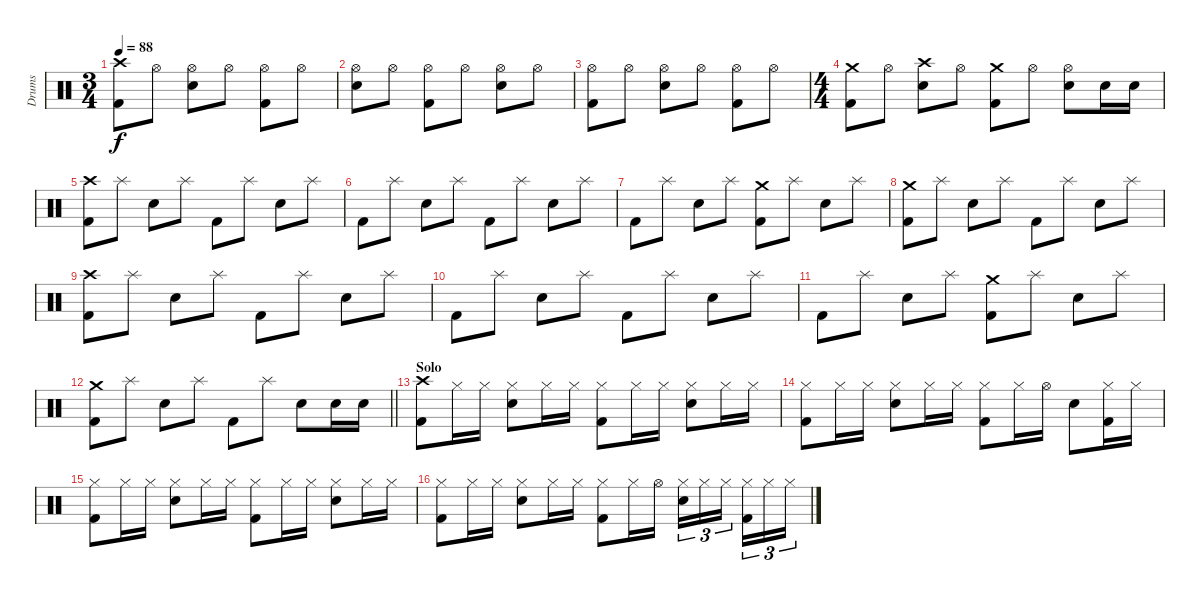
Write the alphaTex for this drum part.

\track ("Drums" "Drums") {instrument percussion}
\staff {score}
\articulation defaults
\ts (3 4)
\tempo 88
\clef neutral
\ks c
("Crash high (hit)" "Kick (hit) 2").8{dy f} "Hi-Hat (open)".8 ("Hi-Hat (open)" "Snare (hit) 2").8 "Hi-Hat (open)".8 ("Hi-Hat (open)" "Kick (hit) 2").8 "Hi-Hat (open)".8 |
("Hi-Hat (open)" "Snare (hit) 2").8 "Hi-Hat (open)".8 ("Hi-Hat (open)" "Kick (hit) 2").8 "Hi-Hat (open)".8 ("Hi-Hat (open)" "Snare (hit) 2").8 "Hi-Hat (open)".8 |
("Hi-Hat (open)" "Kick (hit) 2").8 "Hi-Hat (open)".8 ("Hi-Hat (open)" "Snare (hit) 2").8 "Hi-Hat (open)".8 ("Hi-Hat (open)" "Kick (hit) 2").8 "Hi-Hat (open)".8 |
\ts (4 4)
("Crash medium (hit)" "Kick (hit) 2").8 "Hi-Hat (open)".8 ("Crash high (hit)" "Snare (hit) 2").8 "Hi-Hat (open)".8 ("Crash medium (hit)" "Kick (hit) 2").8 "Hi-Hat (open)".8 ("Hi-Hat (open)" "Snare (hit) 2").8 "Snare (hit) 2".16 "Snare (hit) 2".16 |
("Crash high (hit)" "Kick (hit) 2").8 "Splash (hit)".8 "Snare (hit) 2".8 "Splash (hit)".8 "Kick (hit) 2".8 "Splash (hit)".8 "Snare (hit) 2".8 "Splash (hit)".8 |
"Kick (hit) 2".8 "Splash (hit)".8 "Snare (hit) 2".8 "Splash (hit)".8 "Kick (hit) 2".8 "Splash (hit)".8 "Snare (hit) 2".8 "Splash (hit)".8 |
"Kick (hit) 2".8 "Splash (hit)".8 "Snare (hit) 2".8 "Splash (hit)".8 ("Crash medium (hit)" "Kick (hit) 2").8 "Splash (hit)".8 "Snare (hit) 2".8 "Splash (hit)".8 |
("Crash medium (hit)" "Kick (hit) 2").8 "Splash (hit)".8 "Snare (hit) 2".8 "Splash (hit)".8 "Kick (hit) 2".8 "Splash (hit)".8 "Snare (hit) 2".8 "Splash (hit)".8 |
("Crash high (hit)" "Kick (hit) 2").8 "Splash (hit)".8 "Snare (hit) 2".8 "Splash (hit)".8 "Kick (hit) 2".8 "Splash (hit)".8 "Snare (hit) 2".8 "Splash (hit)".8 |
"Kick (hit) 2".8 "Splash (hit)".8 "Snare (hit) 2".8 "Splash (hit)".8 "Kick (hit) 2".8 "Splash (hit)".8 "Snare (hit) 2".8 "Splash (hit)".8 |
"Kick (hit) 2".8 "Splash (hit)".8 "Snare (hit) 2".8 "Splash (hit)".8 ("Crash medium (hit)" "Kick (hit) 2").8 "Splash (hit)".8 "Snare (hit) 2".8 "Splash (hit)".8 |
\barLineRight lightlight
("Crash medium (hit)" "Kick (hit) 2").8 "Splash (hit)".8 "Snare (hit) 2".8 "Splash (hit)".8 "Kick (hit) 2".8 "Splash (hit)".8 "Snare (hit) 2".8 "Snare (hit) 2".16 "Snare (hit) 2".16 |
\section ("" "Solo")
("Crash high (hit)" "Kick (hit) 2").8 "Hi-Hat (closed)".16 "Hi-Hat (closed)".16 ("Hi-Hat (closed)" "Snare (hit) 2").8 "Hi-Hat (closed)".16 "Hi-Hat (closed)".16 ("Hi-Hat (closed)" "Kick (hit) 2").8 "Hi-Hat (closed)".16 "Hi-Hat (closed)".16 ("Hi-Hat (closed)" "Snare (hit) 2").8 "Hi-Hat (closed)".16 "Hi-Hat (closed)".16 |
("Hi-Hat (closed)" "Kick (hit) 2").8 "Hi-Hat (closed)".16 "Hi-Hat (closed)".16 ("Hi-Hat (closed)" "Snare (hit) 2").8 "Hi-Hat (closed)".16 "Hi-Hat (closed)".16 ("Hi-Hat (closed)" "Kick (hit) 2").8 "Hi-Hat (closed)".16 "Hi-Hat (open)".16 "Snare (hit) 2".8 ("Hi-Hat (closed)" "Kick (hit) 2").16 "Hi-Hat (closed)".16 |
("Hi-Hat (closed)" "Kick (hit) 2").8 "Hi-Hat (closed)".16 "Hi-Hat (closed)".16 ("Hi-Hat (closed)" "Snare (hit) 2").8 "Hi-Hat (closed)".16 "Hi-Hat (closed)".16 ("Hi-Hat (closed)" "Kick (hit) 2").8 "Hi-Hat (closed)".16 "Hi-Hat (closed)".16 ("Hi-Hat (closed)" "Snare (hit) 2").8 "Hi-Hat (closed)".16 "Hi-Hat (closed)".16 |
("Hi-Hat (closed)" "Kick (hit) 2").8 "Hi-Hat (closed)".16 "Hi-Hat (closed)".16 ("Hi-Hat (closed)" "Snare (hit) 2").8 "Hi-Hat (closed)".16 "Hi-Hat (closed)".16 ("Hi-Hat (closed)" "Kick (hit) 2").8 "Hi-Hat (closed)".16 "Hi-Hat (open)".16 ("Hi-Hat (closed)" "Snare (hit) 2").16{tu (3 2)} "Hi-Hat (closed)".16{tu (3 2)} "Hi-Hat (closed)".16{tu (3 2) beam splitsecondary} ("Hi-Hat (closed)" "Kick (hit) 2").16{tu (3 2)} "Hi-Hat (closed)".16{tu (3 2)} "Hi-Hat (closed)".16{tu (3 2)}
